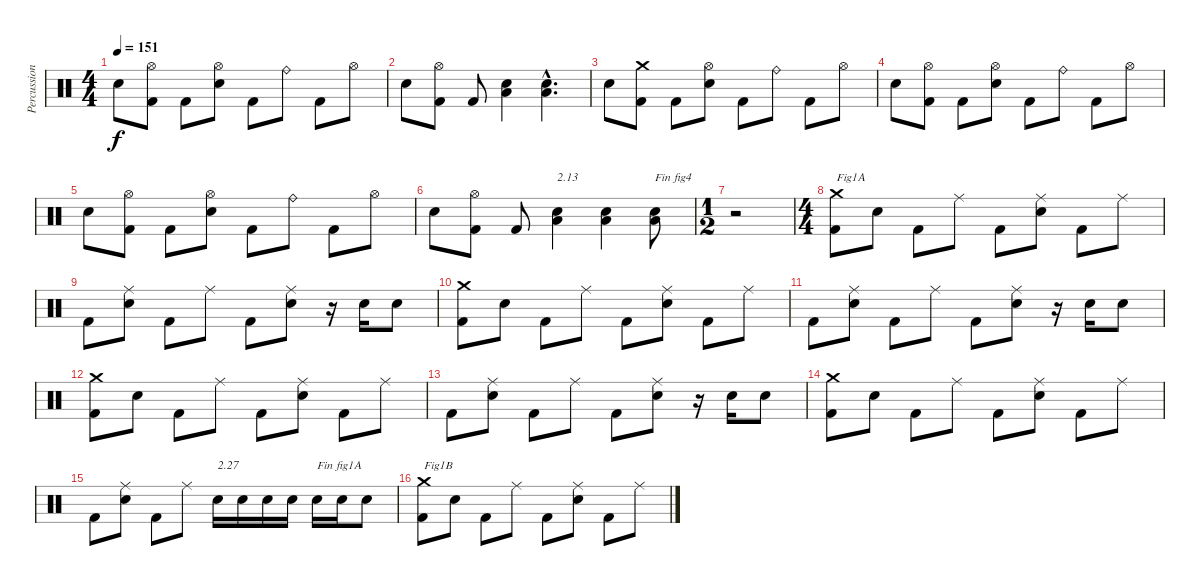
\track ("Percussions" "Percussion") {instrument percussion}
\staff {score}
\articulation defaults
\ts (4 4)
\tempo 151
\clef neutral
\ks c "Electric Snare (hit)".8{dy f}
("Kick (hit) 2" "Hi-Hat (open)").8 "Kick (hit) 2".8 ("Electric Snare (hit)" "Hi-Hat (open)").8 "Kick (hit) 2".8 "Ride (bell)".8 "Kick (hit) 2".8 "Hi-Hat (open)".8 |
"Electric Snare (hit)".8 ("Kick (hit) 2" "Hi-Hat (open)").8 "Kick (hit) 2".8 ("Electric Snare (hit)" "Low Floor Tom (hit)").4 ("Electric Snare (hit)"{hac} "Low Floor Tom (hit)"{hac}).4{d} |
"Electric Snare (hit)".8 ("Kick (hit) 2" "Crash medium (hit)").8 "Kick (hit) 2".8 ("Electric Snare (hit)" "Hi-Hat (open)").8 "Kick (hit) 2".8 "Ride (bell)".8 "Kick (hit) 2".8 "Hi-Hat (open)".8 |
"Electric Snare (hit)".8 ("Kick (hit) 2" "Hi-Hat (open)").8 "Kick (hit) 2".8 ("Electric Snare (hit)" "Hi-Hat (open)").8 "Kick (hit) 2".8 "Ride (bell)".8 "Kick (hit) 2".8 "Hi-Hat (open)".8 |
"Electric Snare (hit)".8 ("Kick (hit) 2" "Hi-Hat (open)").8 "Kick (hit) 2".8 ("Electric Snare (hit)" "Hi-Hat (open)").8 "Kick (hit) 2".8 "Ride (bell)".8 "Kick (hit) 2".8 "Hi-Hat (open)".8 |
"Electric Snare (hit)".8 ("Kick (hit) 2" "Hi-Hat (open)").8 "Kick (hit) 2".8 ("Electric Snare (hit)" "Low Floor Tom (hit)").4{txt "2.13"} ("Electric Snare (hit)" "Low Floor Tom (hit)").4 ("Electric Snare (hit)" "Low Floor Tom (hit)").8{txt "Fin fig4"} |
\ts (1 2)
r.2 |
\ts (4 4)
("Kick (hit) 2" "Crash medium (hit)").8{txt "Fig1A"} "Electric Snare (hit)".8 "Kick (hit) 2".8 "Ride (middle)".8 "Kick (hit) 2".8 ("Electric Snare (hit)" "Ride (middle)").8 "Kick (hit) 2".8 "Ride (middle)".8 |
"Kick (hit) 2".8 ("Electric Snare (hit)" "Ride (middle)").8 "Kick (hit) 2".8 "Ride (middle)".8 "Kick (hit) 2".8 ("Electric Snare (hit)" "Ride (middle)").8 r.16 "Electric Snare (hit)".16 "Electric Snare (hit)".8 |
("Kick (hit) 2" "Crash medium (hit)").8 "Electric Snare (hit)".8 "Kick (hit) 2".8 "Ride (middle)".8 "Kick (hit) 2".8 ("Electric Snare (hit)" "Ride (middle)").8 "Kick (hit) 2".8 "Ride (middle)".8 |
"Kick (hit) 2".8 ("Electric Snare (hit)" "Ride (middle)").8 "Kick (hit) 2".8 "Ride (middle)".8 "Kick (hit) 2".8 ("Electric Snare (hit)" "Ride (middle)").8 r.16 "Electric Snare (hit)".16 "Electric Snare (hit)".8 |
("Kick (hit) 2" "Crash medium (hit)").8 "Electric Snare (hit)".8 "Kick (hit) 2".8 "Ride (middle)".8 "Kick (hit) 2".8 ("Electric Snare (hit)" "Ride (middle)").8 "Kick (hit) 2".8 "Ride (middle)".8 |
"Kick (hit) 2".8 ("Electric Snare (hit)" "Ride (middle)").8 "Kick (hit) 2".8 "Ride (middle)".8 "Kick (hit) 2".8 ("Electric Snare (hit)" "Ride (middle)").8 r.16 "Electric Snare (hit)".16 "Electric Snare (hit)".8 |
("Kick (hit) 2" "Crash medium (hit)").8 "Electric Snare (hit)".8 "Kick (hit) 2".8 "Ride (middle)".8 "Kick (hit) 2".8 ("Electric Snare (hit)" "Ride (middle)").8 "Kick (hit) 2".8 "Ride (middle)".8 |
"Kick (hit) 2".8 ("Electric Snare (hit)" "Ride (middle)").8 "Kick (hit) 2".8 "Ride (middle)".8 "Electric Snare (hit)".16{txt "2.27"} "Electric Snare (hit)".16 "Electric Snare (hit)".16 "Electric Snare (hit)".16 "Electric Snare (hit)".16{txt "Fin fig1A"} "Electric Snare (hit)".16 "Electric Snare (hit)".8 |
("Kick (hit) 2" "Crash medium (hit)").8{txt "Fig1B"} "Electric Snare (hit)".8 "Kick (hit) 2".8 "Ride (middle)".8 "Kick (hit) 2".8 ("Electric Snare (hit)" "Ride (middle)").8 "Kick (hit) 2".8 "Ride (middle)".8
